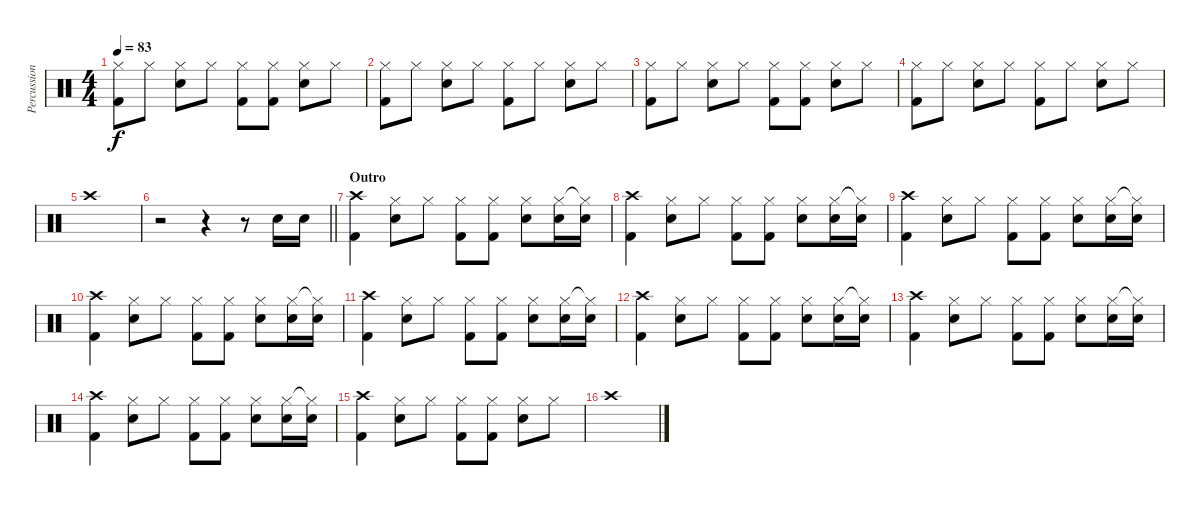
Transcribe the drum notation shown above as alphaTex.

\track ("Percussion" "Percussion") {instrument percussion}
\staff {score}
\articulation defaults
\ts (4 4)
\tempo 83
\clef neutral
\ks c
("Hi-Hat (closed)" "Kick (hit) 2").8{dy f} "Hi-Hat (closed)".8 ("Hi-Hat (closed)" "Snare (hit) 2").8 "Hi-Hat (closed)".8 ("Hi-Hat (closed)" "Kick (hit) 2").8 ("Hi-Hat (closed)" "Kick (hit) 2").8 ("Hi-Hat (closed)" "Snare (hit) 2").8 "Hi-Hat (closed)".8 |
("Hi-Hat (closed)" "Kick (hit) 2").8 "Hi-Hat (closed)".8 ("Hi-Hat (closed)" "Snare (hit) 2").8 "Hi-Hat (closed)".8 ("Hi-Hat (closed)" "Kick (hit) 2").8 "Hi-Hat (closed)".8 ("Hi-Hat (closed)" "Snare (hit) 2").8 "Hi-Hat (closed)".8 |
("Hi-Hat (closed)" "Kick (hit) 2").8 "Hi-Hat (closed)".8 ("Hi-Hat (closed)" "Snare (hit) 2").8 "Hi-Hat (closed)".8 ("Hi-Hat (closed)" "Kick (hit) 2").8 ("Hi-Hat (closed)" "Kick (hit) 2").8 ("Hi-Hat (closed)" "Snare (hit) 2").8 "Hi-Hat (closed)".8 |
("Hi-Hat (closed)" "Kick (hit) 2").8 "Hi-Hat (closed)".8 ("Hi-Hat (closed)" "Snare (hit) 2").8 "Hi-Hat (closed)".8 ("Hi-Hat (closed)" "Kick (hit) 2").8 "Hi-Hat (closed)".8 ("Hi-Hat (closed)" "Snare (hit) 2").8 "Hi-Hat (closed)".8 |
"Crash high (hit)".1 |
\barLineRight lightlight
r.2 r.4 r.8 "Snare (hit) 2".16 "Snare (hit) 2".16 |
\section ("" "Outro")
("Crash high (hit)" "Kick (hit) 2").4 ("Hi-Hat (closed)" "Snare (hit) 2").8 "Hi-Hat (closed)".8 ("Hi-Hat (closed)" "Kick (hit) 2").8 ("Hi-Hat (closed)" "Kick (hit) 2").8 ("Hi-Hat (closed)" "Snare (hit) 2").8 ("Hi-Hat (closed)" "Snare (hit) 2").16 ("Hi-Hat (closed)"{t} "Snare (hit) 2").16 |
("Crash high (hit)" "Kick (hit) 2").4 ("Hi-Hat (closed)" "Snare (hit) 2").8 "Hi-Hat (closed)".8 ("Hi-Hat (closed)" "Kick (hit) 2").8 ("Hi-Hat (closed)" "Kick (hit) 2").8 ("Hi-Hat (closed)" "Snare (hit) 2").8 ("Hi-Hat (closed)" "Snare (hit) 2").16 ("Hi-Hat (closed)"{t} "Snare (hit) 2").16 |
("Crash high (hit)" "Kick (hit) 2").4 ("Hi-Hat (closed)" "Snare (hit) 2").8 "Hi-Hat (closed)".8 ("Hi-Hat (closed)" "Kick (hit) 2").8 ("Hi-Hat (closed)" "Kick (hit) 2").8 ("Hi-Hat (closed)" "Snare (hit) 2").8 ("Hi-Hat (closed)" "Snare (hit) 2").16 ("Hi-Hat (closed)"{t} "Snare (hit) 2").16 |
("Crash high (hit)" "Kick (hit) 2").4 ("Hi-Hat (closed)" "Snare (hit) 2").8 "Hi-Hat (closed)".8 ("Hi-Hat (closed)" "Kick (hit) 2").8 ("Hi-Hat (closed)" "Kick (hit) 2").8 ("Hi-Hat (closed)" "Snare (hit) 2").8 ("Hi-Hat (closed)" "Snare (hit) 2").16 ("Hi-Hat (closed)"{t} "Snare (hit) 2").16 |
("Crash high (hit)" "Kick (hit) 2").4 ("Hi-Hat (closed)" "Snare (hit) 2").8 "Hi-Hat (closed)".8 ("Hi-Hat (closed)" "Kick (hit) 2").8 ("Hi-Hat (closed)" "Kick (hit) 2").8 ("Hi-Hat (closed)" "Snare (hit) 2").8 ("Hi-Hat (closed)" "Snare (hit) 2").16 ("Hi-Hat (closed)"{t} "Snare (hit) 2").16 |
("Crash high (hit)" "Kick (hit) 2").4 ("Hi-Hat (closed)" "Snare (hit) 2").8 "Hi-Hat (closed)".8 ("Hi-Hat (closed)" "Kick (hit) 2").8 ("Hi-Hat (closed)" "Kick (hit) 2").8 ("Hi-Hat (closed)" "Snare (hit) 2").8 ("Hi-Hat (closed)" "Snare (hit) 2").16 ("Hi-Hat (closed)"{t} "Snare (hit) 2").16 |
("Crash high (hit)" "Kick (hit) 2").4 ("Hi-Hat (closed)" "Snare (hit) 2").8 "Hi-Hat (closed)".8 ("Hi-Hat (closed)" "Kick (hit) 2").8 ("Hi-Hat (closed)" "Kick (hit) 2").8 ("Hi-Hat (closed)" "Snare (hit) 2").8 ("Hi-Hat (closed)" "Snare (hit) 2").16 ("Hi-Hat (closed)"{t} "Snare (hit) 2").16 |
("Crash high (hit)" "Kick (hit) 2").4 ("Hi-Hat (closed)" "Snare (hit) 2").8 "Hi-Hat (closed)".8 ("Hi-Hat (closed)" "Kick (hit) 2").8 ("Hi-Hat (closed)" "Kick (hit) 2").8 ("Hi-Hat (closed)" "Snare (hit) 2").8 ("Hi-Hat (closed)" "Snare (hit) 2").16 ("Hi-Hat (closed)"{t} "Snare (hit) 2").16 |
("Crash high (hit)" "Kick (hit) 2").4 ("Hi-Hat (closed)" "Snare (hit) 2").8 "Hi-Hat (closed)".8 ("Hi-Hat (closed)" "Kick (hit) 2").8 ("Hi-Hat (closed)" "Kick (hit) 2").8 ("Hi-Hat (closed)" "Snare (hit) 2").8 "Hi-Hat (closed)".8 |
"Crash high (hit)".1
